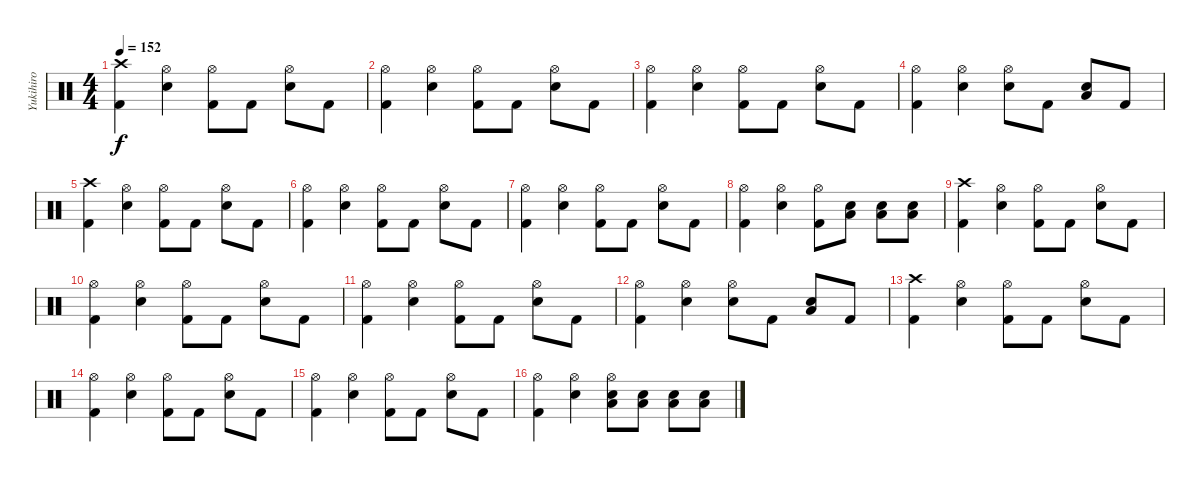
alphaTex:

\track ("Yukihiro" "Yukihiro") {instrument percussion}
\staff {score}
\articulation defaults
\ts (4 4)
\tempo 152
\clef neutral
\ks c
("Crash high (hit)" "Kick (hit) 2").4{dy f} ("Hi-Hat (open)" "Electric Snare (hit)").4 ("Hi-Hat (open)" "Kick (hit) 2").8 "Kick (hit) 2".8 ("Hi-Hat (open)" "Electric Snare (hit)").8 "Kick (hit) 2".8 |
("Hi-Hat (open)" "Kick (hit) 2").4 ("Hi-Hat (open)" "Electric Snare (hit)").4 ("Hi-Hat (open)" "Kick (hit) 2").8 "Kick (hit) 2".8 ("Hi-Hat (open)" "Electric Snare (hit)").8 "Kick (hit) 2".8 |
("Hi-Hat (open)" "Kick (hit) 2").4 ("Hi-Hat (open)" "Electric Snare (hit)").4 ("Hi-Hat (open)" "Kick (hit) 2").8 "Kick (hit) 2".8 ("Hi-Hat (open)" "Electric Snare (hit)").8 "Kick (hit) 2".8 |
("Hi-Hat (open)" "Kick (hit) 2").4 ("Hi-Hat (open)" "Electric Snare (hit)").4 ("Hi-Hat (open)" "Electric Snare (hit)").8 "Kick (hit) 2".8 ("Low Tom (hit)" "Electric Snare (hit)").8 "Kick (hit) 2".8 |
("Crash high (hit)" "Kick (hit) 2").4 ("Hi-Hat (open)" "Electric Snare (hit)").4 ("Hi-Hat (open)" "Kick (hit) 2").8 "Kick (hit) 2".8 ("Hi-Hat (open)" "Electric Snare (hit)").8 "Kick (hit) 2".8 |
("Hi-Hat (open)" "Kick (hit) 2").4 ("Hi-Hat (open)" "Electric Snare (hit)").4 ("Hi-Hat (open)" "Kick (hit) 2").8 "Kick (hit) 2".8 ("Hi-Hat (open)" "Electric Snare (hit)").8 "Kick (hit) 2".8 |
("Hi-Hat (open)" "Kick (hit) 2").4 ("Hi-Hat (open)" "Electric Snare (hit)").4 ("Hi-Hat (open)" "Kick (hit) 2").8 "Kick (hit) 2".8 ("Hi-Hat (open)" "Electric Snare (hit)").8 "Kick (hit) 2".8 |
("Hi-Hat (open)" "Kick (hit) 2").4 ("Hi-Hat (open)" "Electric Snare (hit)").4 ("Hi-Hat (open)" "Kick (hit) 2").8 ("Low Floor Tom (hit)" "Electric Snare (hit)").8 ("Low Floor Tom (hit)" "Electric Snare (hit)").8 ("Low Floor Tom (hit)" "Electric Snare (hit)").8 |
("Crash high (hit)" "Kick (hit) 2").4 ("Hi-Hat (open)" "Electric Snare (hit)").4 ("Hi-Hat (open)" "Kick (hit) 2").8 "Kick (hit) 2".8 ("Hi-Hat (open)" "Electric Snare (hit)").8 "Kick (hit) 2".8 |
("Hi-Hat (open)" "Kick (hit) 2").4 ("Hi-Hat (open)" "Electric Snare (hit)").4 ("Hi-Hat (open)" "Kick (hit) 2").8 "Kick (hit) 2".8 ("Hi-Hat (open)" "Electric Snare (hit)").8 "Kick (hit) 2".8 |
("Hi-Hat (open)" "Kick (hit) 2").4 ("Hi-Hat (open)" "Electric Snare (hit)").4 ("Hi-Hat (open)" "Kick (hit) 2").8 "Kick (hit) 2".8 ("Hi-Hat (open)" "Electric Snare (hit)").8 "Kick (hit) 2".8 |
("Hi-Hat (open)" "Kick (hit) 2").4 ("Hi-Hat (open)" "Electric Snare (hit)").4 ("Hi-Hat (open)" "Electric Snare (hit)").8 "Kick (hit) 2".8 ("Low Tom (hit)" "Electric Snare (hit)").8 "Kick (hit) 2".8 |
("Crash high (hit)" "Kick (hit) 2").4 ("Hi-Hat (open)" "Electric Snare (hit)").4 ("Hi-Hat (open)" "Kick (hit) 2").8 "Kick (hit) 2".8 ("Hi-Hat (open)" "Electric Snare (hit)").8 "Kick (hit) 2".8 |
("Hi-Hat (open)" "Kick (hit) 2").4 ("Hi-Hat (open)" "Electric Snare (hit)").4 ("Hi-Hat (open)" "Kick (hit) 2").8 "Kick (hit) 2".8 ("Hi-Hat (open)" "Electric Snare (hit)").8 "Kick (hit) 2".8 |
("Hi-Hat (open)" "Kick (hit) 2").4 ("Hi-Hat (open)" "Electric Snare (hit)").4 ("Hi-Hat (open)" "Kick (hit) 2").8 "Kick (hit) 2".8 ("Hi-Hat (open)" "Electric Snare (hit)").8 "Kick (hit) 2".8 |
("Hi-Hat (open)" "Kick (hit) 2").4 ("Hi-Hat (open)" "Electric Snare (hit)").4 ("Hi-Hat (open)" "Low Floor Tom (hit)" "Electric Snare (hit)").8 ("Low Floor Tom (hit)" "Electric Snare (hit)").8 ("Low Floor Tom (hit)" "Electric Snare (hit)").8 ("Low Floor Tom (hit)" "Electric Snare (hit)").8
